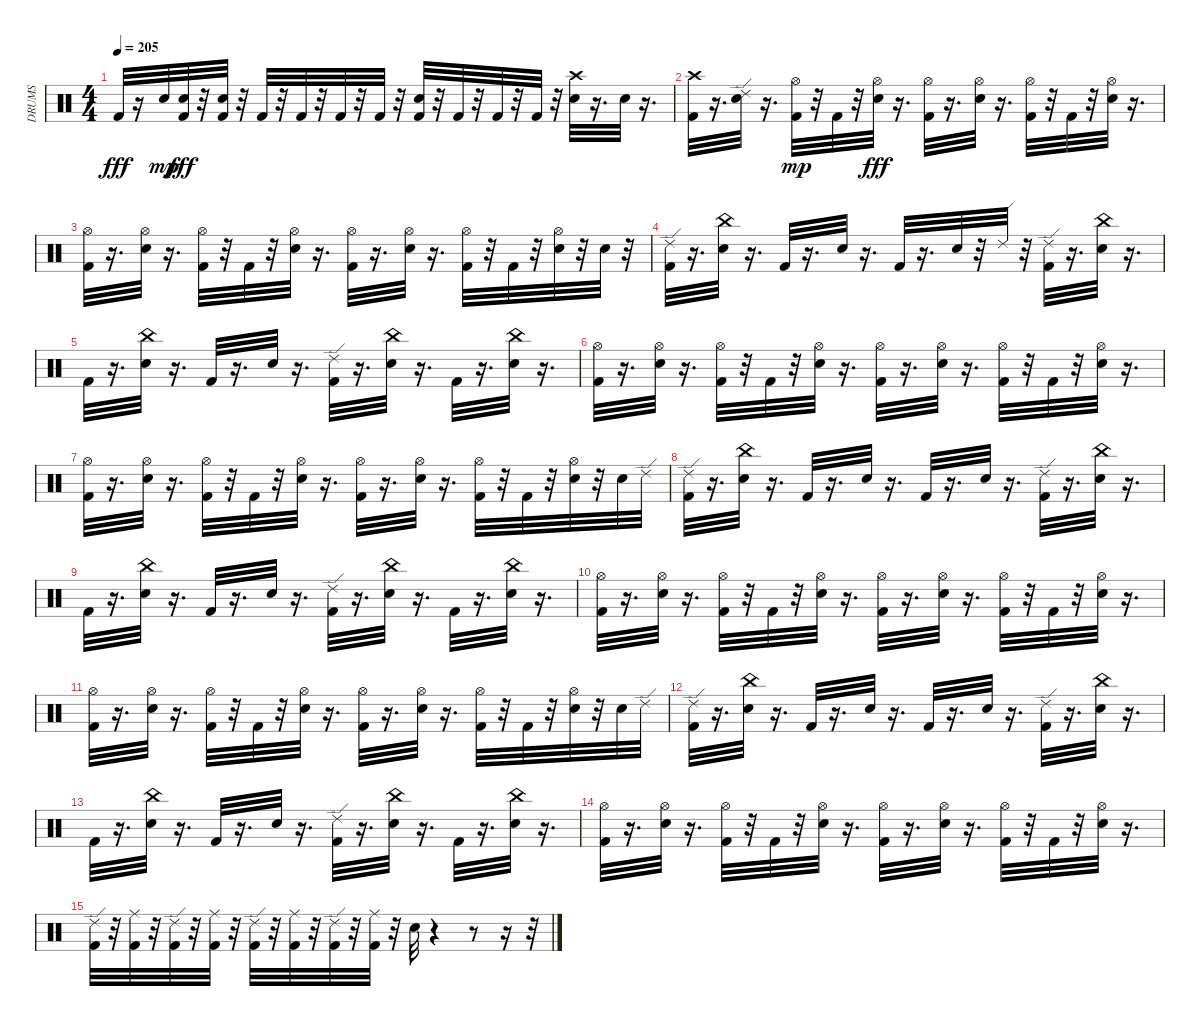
\track ("DRUMS" "DRUMS") {instrument percussion}
\staff {score}
\articulation defaults
\ts (4 4)
\tempo 205
\clef neutral
\ks c "Kick (hit) 2".32{dy fff}
r.16 "Electric Snare (hit)".32{dy mp} ("Electric Snare (hit)" "Kick (hit) 2").32{dy fff} r.32 ("Electric Snare (hit)" "Kick (hit) 2").32 r.32 "Kick (hit) 2".32 r.32 "Kick (hit) 2".32 r.32 "Kick (hit) 2".32 r.32 "Kick (hit) 2".32 r.32 ("Electric Snare (hit)" "Kick (hit) 2").32 r.32 "Kick (hit) 2".32 r.32 "Kick (hit) 2".32 r.32 "Kick (hit) 2".32 r.32 ("Crash high (hit)" "Electric Snare (hit)").32 r.16{d} "Electric Snare (hit)".32 r.16{d} |
("Crash high (hit)" "Kick (hit) 2").32 r.16{d} ("Ride (edge) 2" "Electric Snare (hit)").32 r.16{d} ("Hi-Hat (open)" "Kick (hit) 2").32{dy mp} r.32 "Kick (hit) 2".32 r.32 ("Hi-Hat (open)" "Electric Snare (hit)").32{dy fff} r.16{d} ("Hi-Hat (open)" "Kick (hit) 2").32 r.16{d} ("Hi-Hat (open)" "Electric Snare (hit)").32 r.16{d} ("Hi-Hat (open)" "Kick (hit) 2").32 r.32 "Kick (hit) 2".32 r.32 ("Hi-Hat (open)" "Electric Snare (hit)").32 r.16{d} |
("Hi-Hat (open)" "Kick (hit) 2").32 r.16{d} ("Hi-Hat (open)" "Electric Snare (hit)").32 r.16{d} ("Hi-Hat (open)" "Kick (hit) 2").32 r.32 "Kick (hit) 2".32 r.32 ("Hi-Hat (open)" "Electric Snare (hit)").32 r.16{d} ("Hi-Hat (open)" "Kick (hit) 2").32 r.16{d} ("Hi-Hat (open)" "Electric Snare (hit)").32 r.16{d} ("Hi-Hat (open)" "Kick (hit) 2").32 r.32 "Kick (hit) 2".32 r.32 ("Hi-Hat (open)" "Electric Snare (hit)").32 r.32 "Electric Snare (hit)".32 r.32 |
("Ride (edge) 2" "Kick (hit) 2").32 r.16{d} ("China (hit)" "Electric Snare (hit)").32 r.16{d} "Kick (hit) 2".32 r.16{d} "Electric Snare (hit)".32 r.16{d} "Kick (hit) 2".32 r.16{d} "Electric Snare (hit)".32 r.32 "Ride (edge) 2".32 r.32 ("Ride (edge) 2" "Kick (hit) 2").32 r.16{d} ("China (hit)" "Electric Snare (hit)").32 r.16{d} |
"Kick (hit) 2".32 r.16{d} ("China (hit)" "Electric Snare (hit)").32 r.16{d} "Kick (hit) 2".32 r.16{d} "Electric Snare (hit)".32 r.16{d} ("Ride (edge) 2" "Kick (hit) 2").32 r.16{d} ("China (hit)" "Electric Snare (hit)").32 r.16{d} "Kick (hit) 2".32 r.16{d} ("China (hit)" "Electric Snare (hit)").32 r.16{d} |
("Hi-Hat (open)" "Kick (hit) 2").32 r.16{d} ("Hi-Hat (open)" "Electric Snare (hit)").32 r.16{d} ("Hi-Hat (open)" "Kick (hit) 2").32 r.32 "Kick (hit) 2".32 r.32 ("Hi-Hat (open)" "Electric Snare (hit)").32 r.16{d} ("Hi-Hat (open)" "Kick (hit) 2").32 r.16{d} ("Hi-Hat (open)" "Electric Snare (hit)").32 r.16{d} ("Hi-Hat (open)" "Kick (hit) 2").32 r.32 "Kick (hit) 2".32 r.32 ("Hi-Hat (open)" "Electric Snare (hit)").32 r.16{d} |
("Hi-Hat (open)" "Kick (hit) 2").32 r.16{d} ("Hi-Hat (open)" "Electric Snare (hit)").32 r.16{d} ("Hi-Hat (open)" "Kick (hit) 2").32 r.32 "Kick (hit) 2".32 r.32 ("Hi-Hat (open)" "Electric Snare (hit)").32 r.16{d} ("Hi-Hat (open)" "Kick (hit) 2").32 r.16{d} ("Hi-Hat (open)" "Electric Snare (hit)").32 r.16{d} ("Hi-Hat (open)" "Kick (hit) 2").32 r.32 "Kick (hit) 2".32 r.32 ("Hi-Hat (open)" "Electric Snare (hit)").32 r.32 "Electric Snare (hit)".32 "Ride (edge) 2".32 |
("Ride (edge) 2" "Kick (hit) 2").32 r.16{d} ("China (hit)" "Electric Snare (hit)").32 r.16{d} "Kick (hit) 2".32 r.16{d} "Electric Snare (hit)".32 r.16{d} "Kick (hit) 2".32 r.16{d} "Electric Snare (hit)".32 r.16{d} ("Ride (edge) 2" "Kick (hit) 2").32 r.16{d} ("China (hit)" "Electric Snare (hit)").32 r.16{d} |
"Kick (hit) 2".32 r.16{d} ("China (hit)" "Electric Snare (hit)").32 r.16{d} "Kick (hit) 2".32 r.16{d} "Electric Snare (hit)".32 r.16{d} ("Ride (edge) 2" "Kick (hit) 2").32 r.16{d} ("China (hit)" "Electric Snare (hit)").32 r.16{d} "Kick (hit) 2".32 r.16{d} ("China (hit)" "Electric Snare (hit)").32 r.16{d} |
("Hi-Hat (open)" "Kick (hit) 2").32 r.16{d} ("Hi-Hat (open)" "Electric Snare (hit)").32 r.16{d} ("Hi-Hat (open)" "Kick (hit) 2").32 r.32 "Kick (hit) 2".32 r.32 ("Hi-Hat (open)" "Electric Snare (hit)").32 r.16{d} ("Hi-Hat (open)" "Kick (hit) 2").32 r.16{d} ("Hi-Hat (open)" "Electric Snare (hit)").32 r.16{d} ("Hi-Hat (open)" "Kick (hit) 2").32 r.32 "Kick (hit) 2".32 r.32 ("Hi-Hat (open)" "Electric Snare (hit)").32 r.16{d} |
("Hi-Hat (open)" "Kick (hit) 2").32 r.16{d} ("Hi-Hat (open)" "Electric Snare (hit)").32 r.16{d} ("Hi-Hat (open)" "Kick (hit) 2").32 r.32 "Kick (hit) 2".32 r.32 ("Hi-Hat (open)" "Electric Snare (hit)").32 r.16{d} ("Hi-Hat (open)" "Kick (hit) 2").32 r.16{d} ("Hi-Hat (open)" "Electric Snare (hit)").32 r.16{d} ("Hi-Hat (open)" "Kick (hit) 2").32 r.32 "Kick (hit) 2".32 r.32 ("Hi-Hat (open)" "Electric Snare (hit)").32 r.32 "Electric Snare (hit)".32 "Ride (edge) 2".32 |
("Ride (edge) 2" "Kick (hit) 2").32 r.16{d} ("China (hit)" "Electric Snare (hit)").32 r.16{d} "Kick (hit) 2".32 r.16{d} "Electric Snare (hit)".32 r.16{d} "Kick (hit) 2".32 r.16{d} "Electric Snare (hit)".32 r.16{d} ("Ride (edge) 2" "Kick (hit) 2").32 r.16{d} ("China (hit)" "Electric Snare (hit)").32 r.16{d} |
"Kick (hit) 2".32 r.16{d} ("China (hit)" "Electric Snare (hit)").32 r.16{d} "Kick (hit) 2".32 r.16{d} "Electric Snare (hit)".32 r.16{d} ("Ride (edge) 2" "Kick (hit) 2").32 r.16{d} ("China (hit)" "Electric Snare (hit)").32 r.16{d} "Kick (hit) 2".32 r.16{d} ("China (hit)" "Electric Snare (hit)").32 r.16{d} |
("Hi-Hat (open)" "Kick (hit) 2").32 r.16{d} ("Hi-Hat (open)" "Electric Snare (hit)").32 r.16{d} ("Hi-Hat (open)" "Kick (hit) 2").32 r.32 "Kick (hit) 2".32 r.32 ("Hi-Hat (open)" "Electric Snare (hit)").32 r.16{d} ("Hi-Hat (open)" "Kick (hit) 2").32 r.16{d} ("Hi-Hat (open)" "Electric Snare (hit)").32 r.16{d} ("Hi-Hat (open)" "Kick (hit) 2").32 r.32 "Kick (hit) 2".32 r.32 ("Hi-Hat (open)" "Electric Snare (hit)").32 r.16{d} |
("Ride (edge) 2" "Kick (hit) 2").32 r.32 ("Kick (hit) 2" "Ride (middle)").32 r.32 ("Ride (edge) 2" "Kick (hit) 2").32 r.32 ("Kick (hit) 2" "Ride (middle)").32 r.32 ("Ride (edge) 2" "Kick (hit) 2").32 r.32 ("Kick (hit) 2" "Ride (middle)").32 r.32 ("Ride (edge) 2" "Kick (hit) 2").32 r.32 ("Kick (hit) 2" "Ride (middle)").32 r.32 "Electric Snare (hit)".32 r.4 r.8 r.16 r.32
